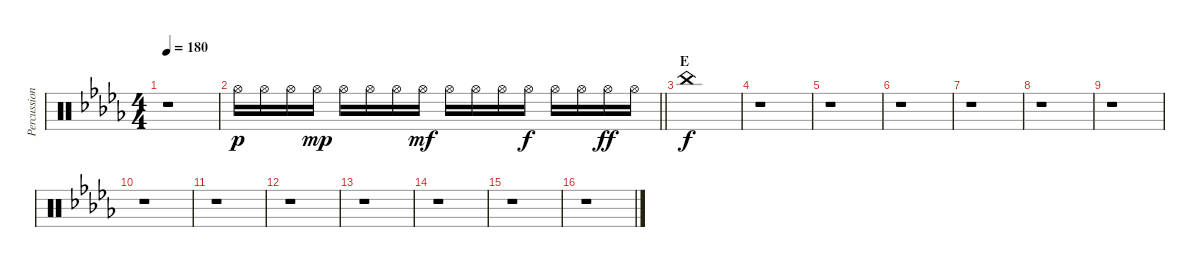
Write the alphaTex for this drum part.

\track ("Percussion" "Percussion") {instrument percussion}
\staff {score}
\articulation defaults
\ts (4 4)
\tempo 180
\clef neutral
\ks db
r.1{dy f} |
\barLineRight lightlight "Hi-Hat (open)".16{dy p} "Hi-Hat (open)".16 "Hi-Hat (open)".16 "Hi-Hat (open)".16{dy mp} "Hi-Hat (open)".16 "Hi-Hat (open)".16 "Hi-Hat (open)".16 "Hi-Hat (open)".16{dy mf} "Hi-Hat (open)".16 "Hi-Hat (open)".16 "Hi-Hat (open)".16 "Hi-Hat (open)".16{dy f} "Hi-Hat (open)".16 "Hi-Hat (open)".16 "Hi-Hat (open)".16{dy ff} "Hi-Hat (open)".16
|
\section ("" "E")
"China (hit)".1{dy f} |
r.1 |
r.1 |
r.1 |
r.1 |
r.1 |
r.1 |
r.1 |
r.1 |
r.1 |
r.1 |
r.1 |
r.1 |
r.1
